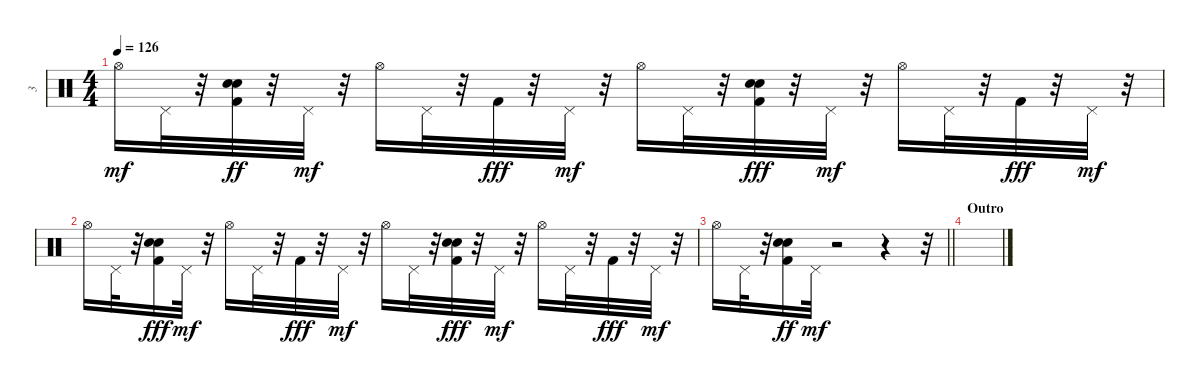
\track ("3" "3") {instrument percussion}
\staff {score}
\articulation defaults
\ts (4 4)
\tempo 126
\clef neutral
\ks c "Hi-Hat (open)".16{dy mf} "Pedal Hi-Hat (hit)".32
r.32 ("Kick (hit) 2" "Snare (hit) 2" "Hand Clap (hit)").32{dy ff} r.32 "Pedal Hi-Hat (hit)".32{dy mf} r.32 "Hi-Hat (open)".16 "Pedal Hi-Hat (hit)".32 r.32 "Kick (hit) 2".32{dy fff} r.32 "Pedal Hi-Hat (hit)".32{dy mf} r.32 "Hi-Hat (open)".16 "Pedal Hi-Hat (hit)".32 r.32 ("Kick (hit) 2" "Snare (hit) 2" "Hand Clap (hit)").32{dy fff} r.32 "Pedal Hi-Hat (hit)".32{dy mf} r.32 "Hi-Hat (open)".16 "Pedal Hi-Hat (hit)".32 r.32 "Kick (hit) 2".32{dy fff} r.32 "Pedal Hi-Hat (hit)".32{dy mf} r.32 |
"Hi-Hat (open)".16 "Pedal Hi-Hat (hit)".32 r.32 ("Kick (hit) 2" "Snare (hit) 2" "Hand Clap (hit)").16{dy fff} "Pedal Hi-Hat (hit)".32{dy mf} r.32 "Hi-Hat (open)".16 "Pedal Hi-Hat (hit)".32 r.32 "Kick (hit) 2".32{dy fff} r.32 "Pedal Hi-Hat (hit)".32{dy mf} r.32 "Hi-Hat (open)".16 "Pedal Hi-Hat (hit)".32 r.32 ("Kick (hit) 2" "Snare (hit) 2" "Hand Clap (hit)").32{dy fff} r.32 "Pedal Hi-Hat (hit)".32{dy mf} r.32 "Hi-Hat (open)".16 "Pedal Hi-Hat (hit)".32 r.32 "Kick (hit) 2".32{dy fff} r.32 "Pedal Hi-Hat (hit)".32{dy mf} r.32 |
\barLineRight lightlight "Hi-Hat (open)".16 "Pedal Hi-Hat (hit)".32
r.32 ("Kick (hit) 2" "Snare (hit) 2" "Hand Clap (hit)").16{dy ff} "Pedal Hi-Hat (hit)".32{dy mf} r.2 r.4 r.32 |
\section ("" "Outro")
